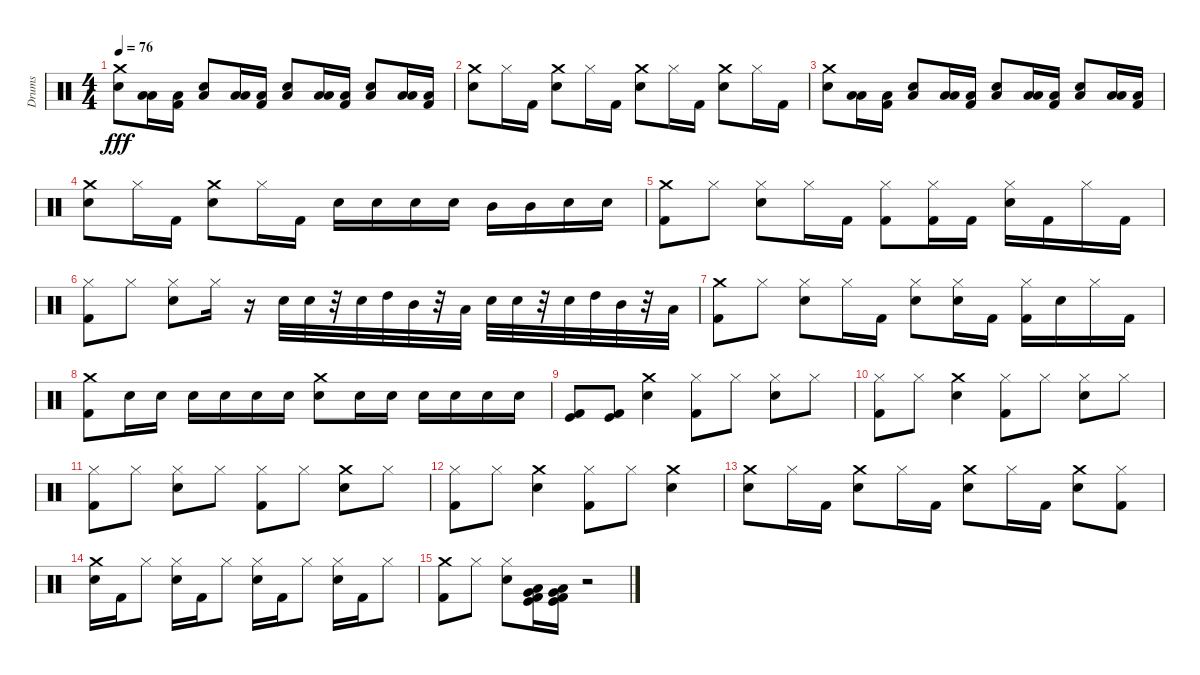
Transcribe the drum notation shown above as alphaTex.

\track ("Drums" "Drums") {instrument percussion}
\staff {score}
\articulation defaults
\ts (4 4)
\tempo 76
\clef neutral
\ks c
("Snare (hit) 2" "Crash medium (hit)").8{dy fff} ("Low Floor Tom (hit)" "Low Tom (hit)").16 ("Kick (hit) 2" "Low Floor Tom (hit)").16 ("Snare (hit) 2" "Low Tom (hit)").8 ("Low Tom (hit)" "Low Floor Tom (hit)").16 ("Kick (hit) 2" "Low Floor Tom (hit)").16 ("Snare (hit) 2" "Low Tom (hit)").8 ("Low Tom (hit)" "Low Floor Tom (hit)").16 ("Kick (hit) 2" "Low Floor Tom (hit)").16 ("Snare (hit) 2" "Low Tom (hit)").8 ("Low Tom (hit)" "Low Floor Tom (hit)").16 ("Kick (hit) 2" "Low Floor Tom (hit)").16 |
("Crash medium (hit)" "Snare (hit) 2").8 "Hi-Hat (closed)".16 "Kick (hit) 2".16 ("Snare (hit) 2" "Crash medium (hit)").8 "Hi-Hat (closed)".16 "Kick (hit) 2".16 ("Snare (hit) 2" "Crash medium (hit)").8 "Hi-Hat (closed)".16 "Kick (hit) 2".16 ("Snare (hit) 2" "Crash medium (hit)").8 "Hi-Hat (closed)".16 "Kick (hit) 2".16 |
("Snare (hit) 2" "Crash medium (hit)").8 ("Low Floor Tom (hit)" "Low Tom (hit)").16 ("Kick (hit) 2" "Low Floor Tom (hit)").16 ("Snare (hit) 2" "Low Tom (hit)").8 ("Low Tom (hit)" "Low Floor Tom (hit)").16 ("Kick (hit) 2" "Low Floor Tom (hit)").16 ("Snare (hit) 2" "Low Tom (hit)").8 ("Low Tom (hit)" "Low Floor Tom (hit)").16 ("Kick (hit) 2" "Low Floor Tom (hit)").16 ("Snare (hit) 2" "Low Tom (hit)").8 ("Low Tom (hit)" "Low Floor Tom (hit)").16 ("Kick (hit) 2" "Low Floor Tom (hit)").16 |
("Crash medium (hit)" "Snare (hit) 2").8 "Hi-Hat (closed)".16 "Kick (hit) 2".16 ("Snare (hit) 2" "Crash medium (hit)").8 "Hi-Hat (closed)".16 "Kick (hit) 2".16 "Snare (hit) 2".16 "Snare (hit) 2".16 "Snare (hit) 2".16 "Snare (hit) 2".16 "Mid Tom (hit)".16 "Mid Tom (hit)".16 "Snare (hit) 2".16 "Snare (hit) 2".16 |
("Kick (hit) 2" "Crash medium (hit)").8 "Hi-Hat (closed)".8 ("Snare (hit) 2" "Hi-Hat (closed)").8 "Hi-Hat (closed)".16 "Kick (hit) 2".16 ("Kick (hit) 2" "Hi-Hat (closed)").8 ("Kick (hit) 2" "Hi-Hat (closed)").16 "Kick (hit) 2".16 ("Snare (hit) 2" "Hi-Hat (closed)").16 "Kick (hit) 2".16 "Hi-Hat (closed)".16 "Kick (hit) 2".16 |
("Kick (hit) 2" "Hi-Hat (closed)").8 "Hi-Hat (closed)".8 ("Snare (hit) 2" "Hi-Hat (closed)").8 "Hi-Hat (closed)".16 r.16 "Snare (hit) 2".32 "Snare (hit) 2".32 r.32 "Snare (hit) 2".32 "High Tom (hit)".32 "Mid Tom (hit)".32 r.32 "Low Tom (hit)".32 "Snare (hit) 2".32 "Snare (hit) 2".32 r.32 "Snare (hit) 2".32 "High Tom (hit)".32 "Mid Tom (hit)".32 r.32 "Low Tom (hit)".32 |
("Kick (hit) 2" "Crash medium (hit)").8 "Hi-Hat (closed)".8 ("Snare (hit) 2" "Hi-Hat (closed)").8 "Hi-Hat (closed)".16 "Kick (hit) 2".16 ("Hi-Hat (closed)" "Snare (hit) 2").8 ("Hi-Hat (closed)" "Snare (hit) 2").16 "Kick (hit) 2".16 ("Hi-Hat (closed)" "Kick (hit) 2").16 "Snare (hit) 2".16 "Hi-Hat (closed)".16 "Kick (hit) 2".16 |
("Kick (hit) 2" "Crash medium (hit)").8 "Snare (hit) 2".16 "Snare (hit) 2".16 "Snare (hit) 2".16 "Snare (hit) 2".16 "Snare (hit) 2".16 "Snare (hit) 2".16 ("Crash medium (hit)" "Snare (hit) 2").8 "Snare (hit) 2".16 "Snare (hit) 2".16 "Snare (hit) 2".16 "Snare (hit) 2".16 "Snare (hit) 2".16 "Snare (hit) 2".16 |
("Kick (hit) 2" "Kick (hit)").8 ("Kick (hit) 2" "Kick (hit)").8 ("Snare (hit) 2" "Crash medium (hit)").4 ("Hi-Hat (closed)" "Kick (hit) 2").8 "Hi-Hat (closed)".8 ("Hi-Hat (closed)" "Snare (hit) 2").8 "Hi-Hat (closed)".8 |
("Hi-Hat (closed)" "Kick (hit) 2").8 "Hi-Hat (closed)".8 ("Snare (hit) 2" "Crash medium (hit)").4 ("Hi-Hat (closed)" "Kick (hit) 2").8 "Hi-Hat (closed)".8 ("Hi-Hat (closed)" "Snare (hit) 2").8 "Hi-Hat (closed)".8 |
("Hi-Hat (closed)" "Kick (hit) 2").8 "Hi-Hat (closed)".8 ("Hi-Hat (closed)" "Snare (hit) 2").8 "Hi-Hat (closed)".8 ("Hi-Hat (closed)" "Kick (hit) 2").8 "Hi-Hat (closed)".8 ("Snare (hit) 2" "Crash medium (hit)").8 "Hi-Hat (closed)".8 |
("Hi-Hat (closed)" "Kick (hit) 2").8 "Hi-Hat (closed)".8 ("Snare (hit) 2" "Crash medium (hit)").4 ("Hi-Hat (closed)" "Kick (hit) 2").8 "Hi-Hat (closed)".8 ("Snare (hit) 2" "Crash medium (hit)").4 |
("Crash medium (hit)" "Snare (hit) 2").8 "Hi-Hat (closed)".16 "Kick (hit) 2".16 ("Snare (hit) 2" "Crash medium (hit)").8 "Hi-Hat (closed)".16 "Kick (hit) 2".16 ("Snare (hit) 2" "Crash medium (hit)").8 "Hi-Hat (closed)".16 "Kick (hit) 2".16 ("Snare (hit) 2" "Crash medium (hit)").8 ("Hi-Hat (closed)" "Kick (hit) 2").8 |
("Snare (hit) 2" "Crash medium (hit)").16 "Kick (hit) 2".16 "Hi-Hat (closed)".8 ("Snare (hit) 2" "Hi-Hat (closed)").16 "Kick (hit) 2".16 "Hi-Hat (closed)".8 ("Snare (hit) 2" "Hi-Hat (closed)").16 "Kick (hit) 2".16 "Hi-Hat (closed)".8 ("Snare (hit) 2" "Hi-Hat (closed)").16 "Kick (hit) 2".16 "Hi-Hat (closed)".8 |
("Kick (hit) 2" "Crash medium (hit)").8 "Hi-Hat (closed)".8 ("Snare (hit) 2" "Hi-Hat (closed)").8 ("Kick (hit) 2" "Kick (hit)" "Low Tom (hit)" "Very Low Tom (hit)").16 ("Kick (hit) 2" "Kick (hit)" "Low Tom (hit)" "Very Low Tom (hit)").16 r.2
